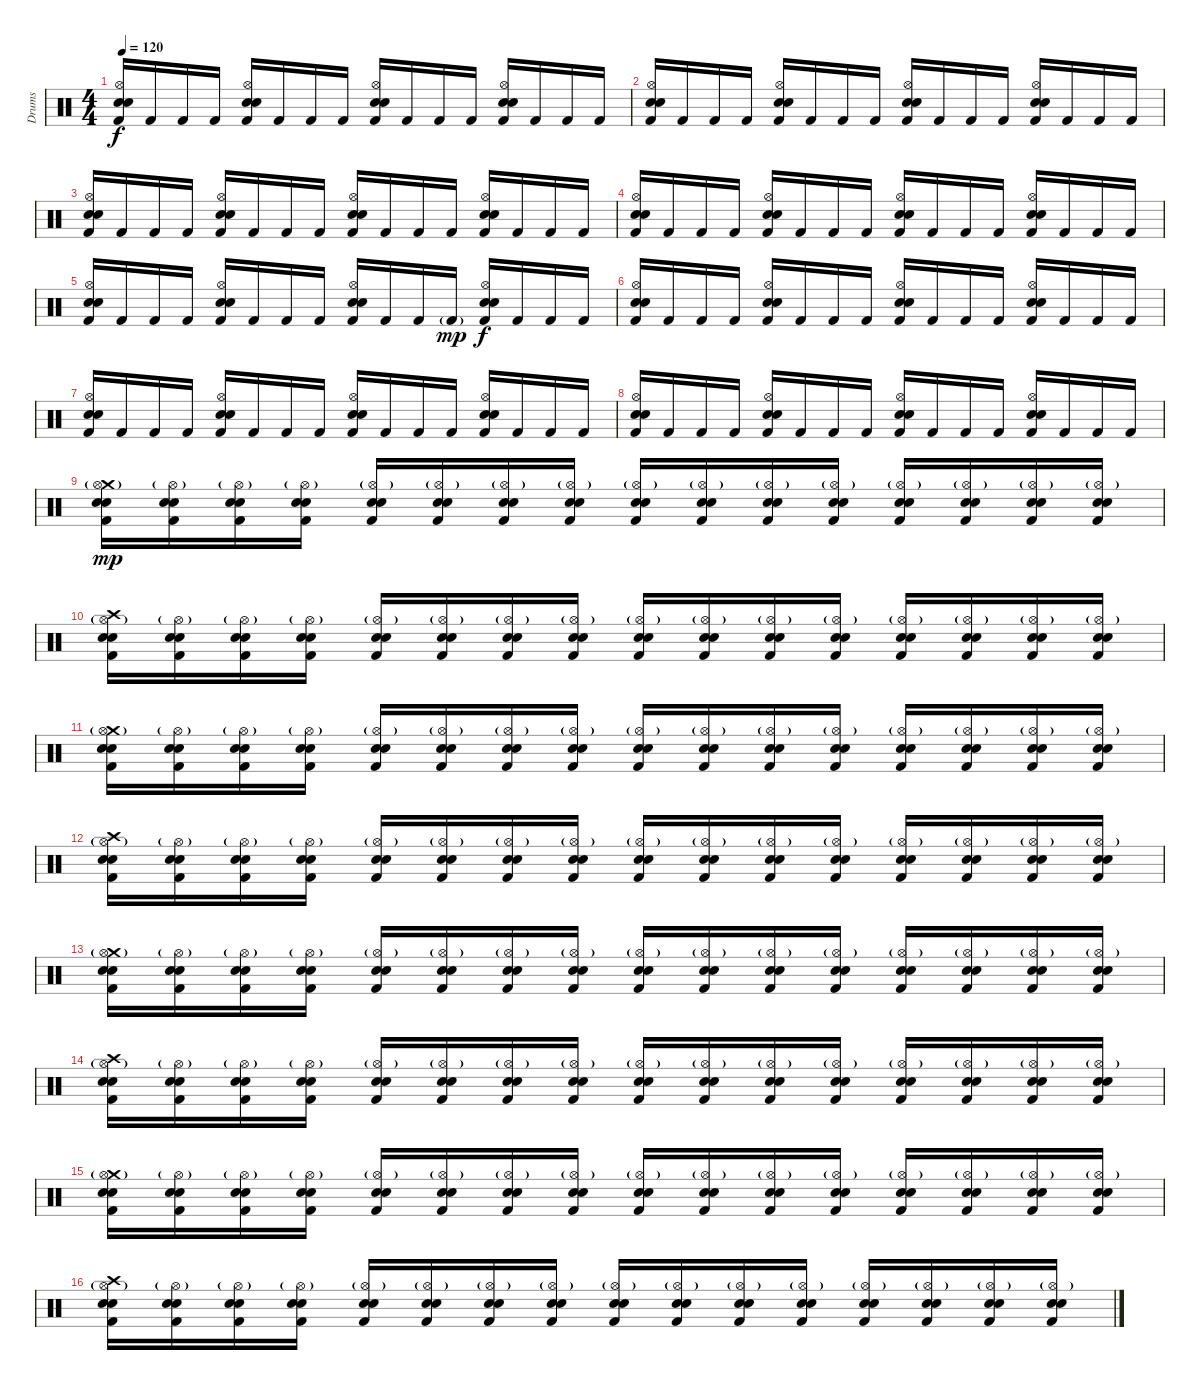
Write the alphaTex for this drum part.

\track ("Drums" "Drums") {instrument percussion}
\staff {score}
\articulation defaults
\ts (4 4)
\tempo 120
\clef neutral
\ks c
("Kick (hit) 2" "Hi-Hat (open)" "Electric Snare (hit)" "Snare (hit) 2").16{dy f} "Kick (hit) 2".16 "Kick (hit) 2".16 "Kick (hit) 2".16 ("Kick (hit) 2" "Hi-Hat (open)" "Electric Snare (hit)" "Snare (hit) 2").16 "Kick (hit) 2".16 "Kick (hit) 2".16 "Kick (hit) 2".16 ("Kick (hit) 2" "Hi-Hat (open)" "Electric Snare (hit)" "Snare (hit) 2").16 "Kick (hit) 2".16 "Kick (hit) 2".16 "Kick (hit) 2".16 ("Kick (hit) 2" "Hi-Hat (open)" "Electric Snare (hit)" "Snare (hit) 2").16 "Kick (hit) 2".16 "Kick (hit) 2".16 "Kick (hit) 2".16 |
("Kick (hit) 2" "Hi-Hat (open)" "Electric Snare (hit)" "Snare (hit) 2").16 "Kick (hit) 2".16 "Kick (hit) 2".16 "Kick (hit) 2".16 ("Kick (hit) 2" "Hi-Hat (open)" "Electric Snare (hit)" "Snare (hit) 2").16 "Kick (hit) 2".16 "Kick (hit) 2".16 "Kick (hit) 2".16 ("Kick (hit) 2" "Hi-Hat (open)" "Electric Snare (hit)" "Snare (hit) 2").16 "Kick (hit) 2".16 "Kick (hit) 2".16 "Kick (hit) 2".16 ("Kick (hit) 2" "Hi-Hat (open)" "Electric Snare (hit)" "Snare (hit) 2").16 "Kick (hit) 2".16 "Kick (hit) 2".16 "Kick (hit) 2".16 |
("Kick (hit) 2" "Hi-Hat (open)" "Electric Snare (hit)" "Snare (hit) 2").16 "Kick (hit) 2".16 "Kick (hit) 2".16 "Kick (hit) 2".16 ("Kick (hit) 2" "Hi-Hat (open)" "Electric Snare (hit)" "Snare (hit) 2").16 "Kick (hit) 2".16 "Kick (hit) 2".16 "Kick (hit) 2".16 ("Kick (hit) 2" "Hi-Hat (open)" "Electric Snare (hit)" "Snare (hit) 2").16 "Kick (hit) 2".16 "Kick (hit) 2".16 "Kick (hit) 2".16 ("Kick (hit) 2" "Hi-Hat (open)" "Electric Snare (hit)" "Snare (hit) 2").16 "Kick (hit) 2".16 "Kick (hit) 2".16 "Kick (hit) 2".16 |
("Kick (hit) 2" "Hi-Hat (open)" "Electric Snare (hit)" "Snare (hit) 2").16 "Kick (hit) 2".16 "Kick (hit) 2".16 "Kick (hit) 2".16 ("Kick (hit) 2" "Hi-Hat (open)" "Electric Snare (hit)" "Snare (hit) 2").16 "Kick (hit) 2".16 "Kick (hit) 2".16 "Kick (hit) 2".16 ("Kick (hit) 2" "Hi-Hat (open)" "Electric Snare (hit)" "Snare (hit) 2").16 "Kick (hit) 2".16 "Kick (hit) 2".16 "Kick (hit) 2".16 ("Kick (hit) 2" "Hi-Hat (open)" "Electric Snare (hit)" "Snare (hit) 2").16 "Kick (hit) 2".16 "Kick (hit) 2".16 "Kick (hit) 2".16 |
("Kick (hit) 2" "Hi-Hat (open)" "Electric Snare (hit)" "Snare (hit) 2").16 "Kick (hit) 2".16 "Kick (hit) 2".16 "Kick (hit) 2".16 ("Kick (hit) 2" "Hi-Hat (open)" "Electric Snare (hit)" "Snare (hit) 2").16 "Kick (hit) 2".16 "Kick (hit) 2".16 "Kick (hit) 2".16 ("Kick (hit) 2" "Hi-Hat (open)" "Electric Snare (hit)" "Snare (hit) 2").16 "Kick (hit) 2".16 "Kick (hit) 2".16 "Kick (hit) 2"{g}.16{dy mp} ("Kick (hit) 2" "Hi-Hat (open)" "Electric Snare (hit)" "Snare (hit) 2").16{dy f} "Kick (hit) 2".16 "Kick (hit) 2".16 "Kick (hit) 2".16 |
("Kick (hit) 2" "Hi-Hat (open)" "Electric Snare (hit)" "Snare (hit) 2").16 "Kick (hit) 2".16 "Kick (hit) 2".16 "Kick (hit) 2".16 ("Kick (hit) 2" "Hi-Hat (open)" "Electric Snare (hit)" "Snare (hit) 2").16 "Kick (hit) 2".16 "Kick (hit) 2".16 "Kick (hit) 2".16 ("Kick (hit) 2" "Hi-Hat (open)" "Electric Snare (hit)" "Snare (hit) 2").16 "Kick (hit) 2".16 "Kick (hit) 2".16 "Kick (hit) 2".16 ("Kick (hit) 2" "Hi-Hat (open)" "Electric Snare (hit)" "Snare (hit) 2").16 "Kick (hit) 2".16 "Kick (hit) 2".16 "Kick (hit) 2".16 |
("Kick (hit) 2" "Hi-Hat (open)" "Electric Snare (hit)" "Snare (hit) 2").16 "Kick (hit) 2".16 "Kick (hit) 2".16 "Kick (hit) 2".16 ("Kick (hit) 2" "Hi-Hat (open)" "Electric Snare (hit)" "Snare (hit) 2").16 "Kick (hit) 2".16 "Kick (hit) 2".16 "Kick (hit) 2".16 ("Kick (hit) 2" "Hi-Hat (open)" "Electric Snare (hit)" "Snare (hit) 2").16 "Kick (hit) 2".16 "Kick (hit) 2".16 "Kick (hit) 2".16 ("Kick (hit) 2" "Hi-Hat (open)" "Electric Snare (hit)" "Snare (hit) 2").16 "Kick (hit) 2".16 "Kick (hit) 2".16 "Kick (hit) 2".16 |
("Kick (hit) 2" "Hi-Hat (open)" "Electric Snare (hit)" "Snare (hit) 2").16 "Kick (hit) 2".16 "Kick (hit) 2".16 "Kick (hit) 2".16 ("Kick (hit) 2" "Hi-Hat (open)" "Electric Snare (hit)" "Snare (hit) 2").16 "Kick (hit) 2".16 "Kick (hit) 2".16 "Kick (hit) 2".16 ("Kick (hit) 2" "Hi-Hat (open)" "Electric Snare (hit)" "Snare (hit) 2").16 "Kick (hit) 2".16 "Kick (hit) 2".16 "Kick (hit) 2".16 ("Kick (hit) 2" "Hi-Hat (open)" "Electric Snare (hit)" "Snare (hit) 2").16 "Kick (hit) 2".16 "Kick (hit) 2".16 "Kick (hit) 2".16 |
("Kick (hit) 2" "Crash medium (hit)" "Hi-Hat (open)"{g} "Electric Snare (hit)" "Snare (hit) 2").16{dy mp} ("Kick (hit) 2" "Hi-Hat (open)"{g} "Electric Snare (hit)" "Snare (hit) 2").16 ("Kick (hit) 2" "Hi-Hat (open)"{g} "Electric Snare (hit)" "Snare (hit) 2").16 ("Kick (hit) 2" "Hi-Hat (open)"{g} "Electric Snare (hit)" "Snare (hit) 2").16 ("Kick (hit) 2" "Hi-Hat (open)"{g} "Electric Snare (hit)" "Snare (hit) 2").16 ("Kick (hit) 2" "Hi-Hat (open)"{g} "Electric Snare (hit)" "Snare (hit) 2").16 ("Kick (hit) 2" "Hi-Hat (open)"{g} "Electric Snare (hit)" "Snare (hit) 2").16 ("Kick (hit) 2" "Hi-Hat (open)"{g} "Electric Snare (hit)" "Snare (hit) 2").16 ("Kick (hit) 2" "Hi-Hat (open)"{g} "Electric Snare (hit)" "Snare (hit) 2").16 ("Kick (hit) 2" "Hi-Hat (open)"{g} "Electric Snare (hit)" "Snare (hit) 2").16 ("Kick (hit) 2" "Hi-Hat (open)"{g} "Electric Snare (hit)" "Snare (hit) 2").16 ("Kick (hit) 2" "Hi-Hat (open)"{g} "Electric Snare (hit)" "Snare (hit) 2").16 ("Kick (hit) 2" "Hi-Hat (open)"{g} "Electric Snare (hit)" "Snare (hit) 2").16 ("Kick (hit) 2" "Hi-Hat (open)"{g} "Electric Snare (hit)" "Snare (hit) 2").16 ("Kick (hit) 2" "Hi-Hat (open)"{g} "Electric Snare (hit)" "Snare (hit) 2").16 ("Kick (hit) 2" "Hi-Hat (open)"{g} "Electric Snare (hit)" "Snare (hit) 2").16 |
("Kick (hit) 2" "Crash high (hit)" "Hi-Hat (open)"{g} "Electric Snare (hit)" "Snare (hit) 2").16 ("Kick (hit) 2" "Hi-Hat (open)"{g} "Electric Snare (hit)" "Snare (hit) 2").16 ("Kick (hit) 2" "Hi-Hat (open)"{g} "Electric Snare (hit)" "Snare (hit) 2").16 ("Kick (hit) 2" "Hi-Hat (open)"{g} "Electric Snare (hit)" "Snare (hit) 2").16 ("Kick (hit) 2" "Hi-Hat (open)"{g} "Electric Snare (hit)" "Snare (hit) 2").16 ("Kick (hit) 2" "Hi-Hat (open)"{g} "Electric Snare (hit)" "Snare (hit) 2").16 ("Kick (hit) 2" "Hi-Hat (open)"{g} "Electric Snare (hit)" "Snare (hit) 2").16 ("Kick (hit) 2" "Hi-Hat (open)"{g} "Electric Snare (hit)" "Snare (hit) 2").16 ("Kick (hit) 2" "Hi-Hat (open)"{g} "Electric Snare (hit)" "Snare (hit) 2").16 ("Kick (hit) 2" "Hi-Hat (open)"{g} "Electric Snare (hit)" "Snare (hit) 2").16 ("Kick (hit) 2" "Hi-Hat (open)"{g} "Electric Snare (hit)" "Snare (hit) 2").16 ("Kick (hit) 2" "Hi-Hat (open)"{g} "Electric Snare (hit)" "Snare (hit) 2").16 ("Kick (hit) 2" "Hi-Hat (open)"{g} "Electric Snare (hit)" "Snare (hit) 2").16 ("Kick (hit) 2" "Hi-Hat (open)"{g} "Electric Snare (hit)" "Snare (hit) 2").16 ("Kick (hit) 2" "Hi-Hat (open)"{g} "Electric Snare (hit)" "Snare (hit) 2").16 ("Kick (hit) 2" "Hi-Hat (open)"{g} "Electric Snare (hit)" "Snare (hit) 2").16 |
("Kick (hit) 2" "Crash medium (hit)" "Hi-Hat (open)"{g} "Electric Snare (hit)" "Snare (hit) 2").16 ("Kick (hit) 2" "Hi-Hat (open)"{g} "Electric Snare (hit)" "Snare (hit) 2").16 ("Kick (hit) 2" "Hi-Hat (open)"{g} "Electric Snare (hit)" "Snare (hit) 2").16 ("Kick (hit) 2" "Hi-Hat (open)"{g} "Electric Snare (hit)" "Snare (hit) 2").16 ("Kick (hit) 2" "Hi-Hat (open)"{g} "Electric Snare (hit)" "Snare (hit) 2").16 ("Kick (hit) 2" "Hi-Hat (open)"{g} "Electric Snare (hit)" "Snare (hit) 2").16 ("Kick (hit) 2" "Hi-Hat (open)"{g} "Electric Snare (hit)" "Snare (hit) 2").16 ("Kick (hit) 2" "Hi-Hat (open)"{g} "Electric Snare (hit)" "Snare (hit) 2").16 ("Kick (hit) 2" "Hi-Hat (open)"{g} "Electric Snare (hit)" "Snare (hit) 2").16 ("Kick (hit) 2" "Hi-Hat (open)"{g} "Electric Snare (hit)" "Snare (hit) 2").16 ("Kick (hit) 2" "Hi-Hat (open)"{g} "Electric Snare (hit)" "Snare (hit) 2").16 ("Kick (hit) 2" "Hi-Hat (open)"{g} "Electric Snare (hit)" "Snare (hit) 2").16 ("Kick (hit) 2" "Hi-Hat (open)"{g} "Electric Snare (hit)" "Snare (hit) 2").16 ("Kick (hit) 2" "Hi-Hat (open)"{g} "Electric Snare (hit)" "Snare (hit) 2").16 ("Kick (hit) 2" "Hi-Hat (open)"{g} "Electric Snare (hit)" "Snare (hit) 2").16 ("Kick (hit) 2" "Hi-Hat (open)"{g} "Electric Snare (hit)" "Snare (hit) 2").16 |
("Kick (hit) 2" "Crash high (hit)" "Hi-Hat (open)"{g} "Electric Snare (hit)" "Snare (hit) 2").16 ("Kick (hit) 2" "Hi-Hat (open)"{g} "Electric Snare (hit)" "Snare (hit) 2").16 ("Kick (hit) 2" "Hi-Hat (open)"{g} "Electric Snare (hit)" "Snare (hit) 2").16 ("Kick (hit) 2" "Hi-Hat (open)"{g} "Electric Snare (hit)" "Snare (hit) 2").16 ("Kick (hit) 2" "Hi-Hat (open)"{g} "Electric Snare (hit)" "Snare (hit) 2").16 ("Kick (hit) 2" "Hi-Hat (open)"{g} "Electric Snare (hit)" "Snare (hit) 2").16 ("Kick (hit) 2" "Hi-Hat (open)"{g} "Electric Snare (hit)" "Snare (hit) 2").16 ("Kick (hit) 2" "Hi-Hat (open)"{g} "Electric Snare (hit)" "Snare (hit) 2").16 ("Kick (hit) 2" "Hi-Hat (open)"{g} "Electric Snare (hit)" "Snare (hit) 2").16 ("Kick (hit) 2" "Hi-Hat (open)"{g} "Electric Snare (hit)" "Snare (hit) 2").16 ("Kick (hit) 2" "Hi-Hat (open)"{g} "Electric Snare (hit)" "Snare (hit) 2").16 ("Kick (hit) 2" "Hi-Hat (open)"{g} "Electric Snare (hit)" "Snare (hit) 2").16 ("Kick (hit) 2" "Hi-Hat (open)"{g} "Electric Snare (hit)" "Snare (hit) 2").16 ("Kick (hit) 2" "Hi-Hat (open)"{g} "Electric Snare (hit)" "Snare (hit) 2").16 ("Kick (hit) 2" "Hi-Hat (open)"{g} "Electric Snare (hit)" "Snare (hit) 2").16 ("Kick (hit) 2" "Hi-Hat (open)"{g} "Electric Snare (hit)" "Snare (hit) 2").16 |
("Kick (hit) 2" "Crash medium (hit)" "Hi-Hat (open)"{g} "Electric Snare (hit)" "Snare (hit) 2").16 ("Kick (hit) 2" "Hi-Hat (open)"{g} "Electric Snare (hit)" "Snare (hit) 2").16 ("Kick (hit) 2" "Hi-Hat (open)"{g} "Electric Snare (hit)" "Snare (hit) 2").16 ("Kick (hit) 2" "Hi-Hat (open)"{g} "Electric Snare (hit)" "Snare (hit) 2").16 ("Kick (hit) 2" "Hi-Hat (open)"{g} "Electric Snare (hit)" "Snare (hit) 2").16 ("Kick (hit) 2" "Hi-Hat (open)"{g} "Electric Snare (hit)" "Snare (hit) 2").16 ("Kick (hit) 2" "Hi-Hat (open)"{g} "Electric Snare (hit)" "Snare (hit) 2").16 ("Kick (hit) 2" "Hi-Hat (open)"{g} "Electric Snare (hit)" "Snare (hit) 2").16 ("Kick (hit) 2" "Hi-Hat (open)"{g} "Electric Snare (hit)" "Snare (hit) 2").16 ("Kick (hit) 2" "Hi-Hat (open)"{g} "Electric Snare (hit)" "Snare (hit) 2").16 ("Kick (hit) 2" "Hi-Hat (open)"{g} "Electric Snare (hit)" "Snare (hit) 2").16 ("Kick (hit) 2" "Hi-Hat (open)"{g} "Electric Snare (hit)" "Snare (hit) 2").16 ("Kick (hit) 2" "Hi-Hat (open)"{g} "Electric Snare (hit)" "Snare (hit) 2").16 ("Kick (hit) 2" "Hi-Hat (open)"{g} "Electric Snare (hit)" "Snare (hit) 2").16 ("Kick (hit) 2" "Hi-Hat (open)"{g} "Electric Snare (hit)" "Snare (hit) 2").16 ("Kick (hit) 2" "Hi-Hat (open)"{g} "Electric Snare (hit)" "Snare (hit) 2").16 |
("Kick (hit) 2" "Crash high (hit)" "Hi-Hat (open)"{g} "Electric Snare (hit)" "Snare (hit) 2").16 ("Kick (hit) 2" "Hi-Hat (open)"{g} "Electric Snare (hit)" "Snare (hit) 2").16 ("Kick (hit) 2" "Hi-Hat (open)"{g} "Electric Snare (hit)" "Snare (hit) 2").16 ("Kick (hit) 2" "Hi-Hat (open)"{g} "Electric Snare (hit)" "Snare (hit) 2").16 ("Kick (hit) 2" "Hi-Hat (open)"{g} "Electric Snare (hit)" "Snare (hit) 2").16 ("Kick (hit) 2" "Hi-Hat (open)"{g} "Electric Snare (hit)" "Snare (hit) 2").16 ("Kick (hit) 2" "Hi-Hat (open)"{g} "Electric Snare (hit)" "Snare (hit) 2").16 ("Kick (hit) 2" "Hi-Hat (open)"{g} "Electric Snare (hit)" "Snare (hit) 2").16 ("Kick (hit) 2" "Hi-Hat (open)"{g} "Electric Snare (hit)" "Snare (hit) 2").16 ("Kick (hit) 2" "Hi-Hat (open)"{g} "Electric Snare (hit)" "Snare (hit) 2").16 ("Kick (hit) 2" "Hi-Hat (open)"{g} "Electric Snare (hit)" "Snare (hit) 2").16 ("Kick (hit) 2" "Hi-Hat (open)"{g} "Electric Snare (hit)" "Snare (hit) 2").16 ("Kick (hit) 2" "Hi-Hat (open)"{g} "Electric Snare (hit)" "Snare (hit) 2").16 ("Kick (hit) 2" "Hi-Hat (open)"{g} "Electric Snare (hit)" "Snare (hit) 2").16 ("Kick (hit) 2" "Hi-Hat (open)"{g} "Electric Snare (hit)" "Snare (hit) 2").16 ("Kick (hit) 2" "Hi-Hat (open)"{g} "Electric Snare (hit)" "Snare (hit) 2").16 |
("Kick (hit) 2" "Crash medium (hit)" "Hi-Hat (open)"{g} "Electric Snare (hit)" "Snare (hit) 2").16 ("Kick (hit) 2" "Hi-Hat (open)"{g} "Electric Snare (hit)" "Snare (hit) 2").16 ("Kick (hit) 2" "Hi-Hat (open)"{g} "Electric Snare (hit)" "Snare (hit) 2").16 ("Kick (hit) 2" "Hi-Hat (open)"{g} "Electric Snare (hit)" "Snare (hit) 2").16 ("Kick (hit) 2" "Hi-Hat (open)"{g} "Electric Snare (hit)" "Snare (hit) 2").16 ("Kick (hit) 2" "Hi-Hat (open)"{g} "Electric Snare (hit)" "Snare (hit) 2").16 ("Kick (hit) 2" "Hi-Hat (open)"{g} "Electric Snare (hit)" "Snare (hit) 2").16 ("Kick (hit) 2" "Hi-Hat (open)"{g} "Electric Snare (hit)" "Snare (hit) 2").16 ("Kick (hit) 2" "Hi-Hat (open)"{g} "Electric Snare (hit)" "Snare (hit) 2").16 ("Kick (hit) 2" "Hi-Hat (open)"{g} "Electric Snare (hit)" "Snare (hit) 2").16 ("Kick (hit) 2" "Hi-Hat (open)"{g} "Electric Snare (hit)" "Snare (hit) 2").16 ("Kick (hit) 2" "Hi-Hat (open)"{g} "Electric Snare (hit)" "Snare (hit) 2").16 ("Kick (hit) 2" "Hi-Hat (open)"{g} "Electric Snare (hit)" "Snare (hit) 2").16 ("Kick (hit) 2" "Hi-Hat (open)"{g} "Electric Snare (hit)" "Snare (hit) 2").16 ("Kick (hit) 2" "Hi-Hat (open)"{g} "Electric Snare (hit)" "Snare (hit) 2").16 ("Kick (hit) 2" "Hi-Hat (open)"{g} "Electric Snare (hit)" "Snare (hit) 2").16 |
("Kick (hit) 2" "Crash high (hit)" "Hi-Hat (open)"{g} "Electric Snare (hit)" "Snare (hit) 2").16 ("Kick (hit) 2" "Hi-Hat (open)"{g} "Electric Snare (hit)" "Snare (hit) 2").16 ("Kick (hit) 2" "Hi-Hat (open)"{g} "Electric Snare (hit)" "Snare (hit) 2").16 ("Kick (hit) 2" "Hi-Hat (open)"{g} "Electric Snare (hit)" "Snare (hit) 2").16 ("Kick (hit) 2" "Hi-Hat (open)"{g} "Electric Snare (hit)" "Snare (hit) 2").16 ("Kick (hit) 2" "Hi-Hat (open)"{g} "Electric Snare (hit)" "Snare (hit) 2").16 ("Kick (hit) 2" "Hi-Hat (open)"{g} "Electric Snare (hit)" "Snare (hit) 2").16 ("Kick (hit) 2" "Hi-Hat (open)"{g} "Electric Snare (hit)" "Snare (hit) 2").16 ("Kick (hit) 2" "Hi-Hat (open)"{g} "Electric Snare (hit)" "Snare (hit) 2").16 ("Kick (hit) 2" "Hi-Hat (open)"{g} "Electric Snare (hit)" "Snare (hit) 2").16 ("Kick (hit) 2" "Hi-Hat (open)"{g} "Electric Snare (hit)" "Snare (hit) 2").16 ("Kick (hit) 2" "Hi-Hat (open)"{g} "Electric Snare (hit)" "Snare (hit) 2").16 ("Kick (hit) 2" "Hi-Hat (open)"{g} "Electric Snare (hit)" "Snare (hit) 2").16 ("Kick (hit) 2" "Hi-Hat (open)"{g} "Electric Snare (hit)" "Snare (hit) 2").16 ("Kick (hit) 2" "Hi-Hat (open)"{g} "Electric Snare (hit)" "Snare (hit) 2").16 ("Kick (hit) 2" "Hi-Hat (open)"{g} "Electric Snare (hit)" "Snare (hit) 2").16
